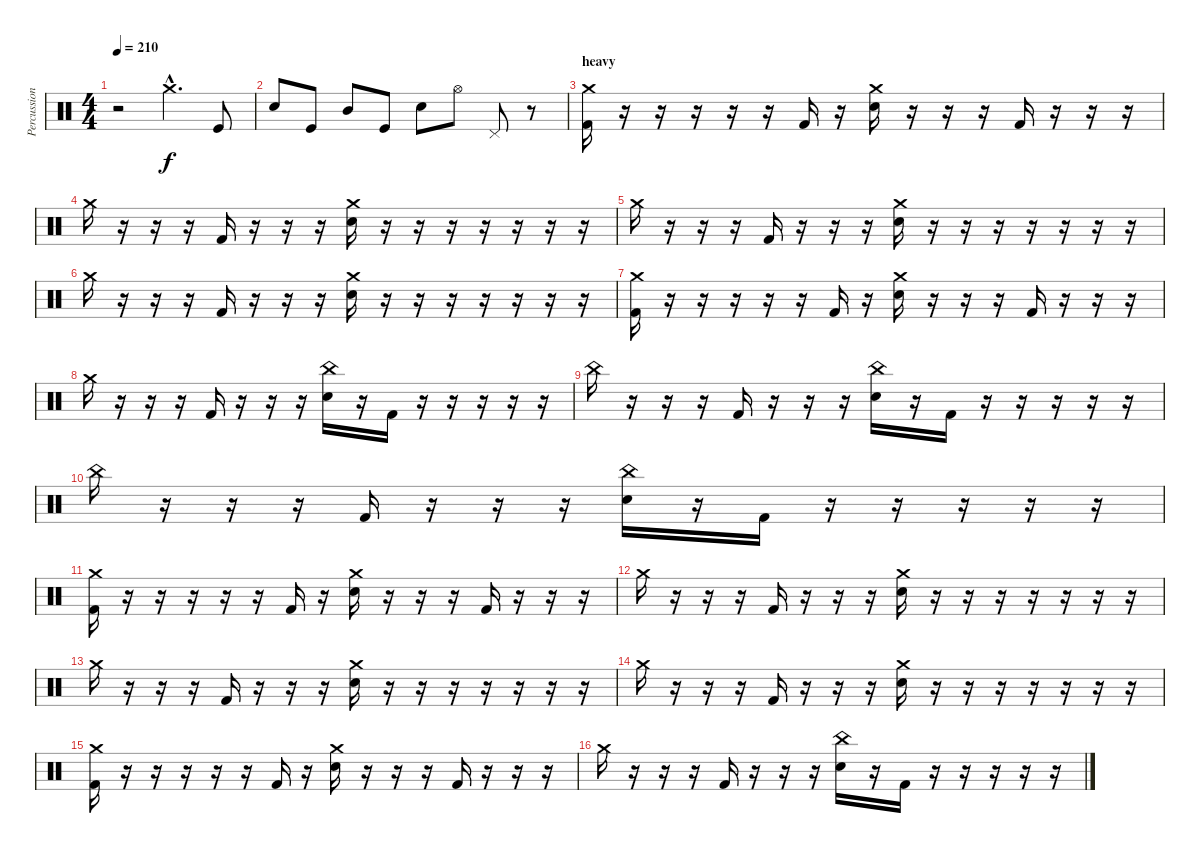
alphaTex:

\track ("Percussion" "Percussion") {instrument percussion}
\staff {score}
\articulation defaults
\ts (4 4)
\tempo 210
\clef neutral
\ks c
r.2{dy f volume 0} "Crash medium (hit)"{hac}.4{d volume 13} "Kick (hit)".8 |
"Electric Snare (hit)".8 "Kick (hit)".8 "Mid Tom (hit)".8 "Kick (hit)".8 "Electric Snare (hit)".8 "Hi-Hat (open)".8 "Pedal Hi-Hat (hit)".8 r.8 |
\section ("" "heavy")
("Kick (hit) 2" "Crash medium (hit)").16 r.16 r.16 r.16 r.16 r.16 "Kick (hit) 2".16 r.16 ("Electric Snare (hit)" "Crash medium (hit)").16 r.16 r.16 r.16 "Kick (hit) 2".16 r.16 r.16 r.16 |
"Crash medium (hit)".16 r.16 r.16 r.16 "Kick (hit) 2".16 r.16 r.16 r.16 ("Electric Snare (hit)" "Crash medium (hit)").16 r.16 r.16 r.16 r.16 r.16 r.16 r.16 |
"Crash medium (hit)".16 r.16 r.16 r.16 "Kick (hit) 2".16 r.16 r.16 r.16 ("Electric Snare (hit)" "Crash medium (hit)").16 r.16 r.16 r.16 r.16 r.16 r.16 r.16 |
"Crash medium (hit)".16 r.16 r.16 r.16 "Kick (hit) 2".16 r.16 r.16 r.16 ("Electric Snare (hit)" "Crash medium (hit)").16 r.16 r.16 r.16 r.16 r.16 r.16 r.16 |
("Kick (hit) 2" "Crash medium (hit)").16 r.16 r.16 r.16 r.16 r.16 "Kick (hit) 2".16 r.16 ("Electric Snare (hit)" "Crash medium (hit)").16 r.16 r.16 r.16 "Kick (hit) 2".16 r.16 r.16 r.16 |
"Crash medium (hit)".16 r.16 r.16 r.16 "Kick (hit) 2".16 r.16 r.16 r.16 ("Electric Snare (hit)" "China (hit)").16 r.16 "Kick (hit) 2".16 r.16 r.16 r.16 r.16 r.16 |
"China (hit)".16 r.16 r.16 r.16 "Kick (hit) 2".16 r.16 r.16 r.16 ("Electric Snare (hit)" "China (hit)").16 r.16 "Kick (hit) 2".16 r.16 r.16 r.16 r.16 r.16 |
"China (hit)".16 r.16 r.16 r.16 "Kick (hit) 2".16 r.16 r.16 r.16 ("Electric Snare (hit)" "China (hit)").16 r.16 "Kick (hit) 2".16 r.16 r.16 r.16 r.16 r.16 |
("Kick (hit) 2" "Crash medium (hit)").16 r.16 r.16 r.16 r.16 r.16 "Kick (hit) 2".16 r.16 ("Electric Snare (hit)" "Crash medium (hit)").16 r.16 r.16 r.16 "Kick (hit) 2".16 r.16 r.16 r.16 |
"Crash medium (hit)".16 r.16 r.16 r.16 "Kick (hit) 2".16 r.16 r.16 r.16 ("Electric Snare (hit)" "Crash medium (hit)").16 r.16 r.16 r.16 r.16 r.16 r.16 r.16 |
"Crash medium (hit)".16 r.16 r.16 r.16 "Kick (hit) 2".16 r.16 r.16 r.16 ("Electric Snare (hit)" "Crash medium (hit)").16 r.16 r.16 r.16 r.16 r.16 r.16 r.16 |
"Crash medium (hit)".16 r.16 r.16 r.16 "Kick (hit) 2".16 r.16 r.16 r.16 ("Electric Snare (hit)" "Crash medium (hit)").16 r.16 r.16 r.16 r.16 r.16 r.16 r.16 |
("Kick (hit) 2" "Crash medium (hit)").16 r.16 r.16 r.16 r.16 r.16 "Kick (hit) 2".16 r.16 ("Electric Snare (hit)" "Crash medium (hit)").16 r.16 r.16 r.16 "Kick (hit) 2".16 r.16 r.16 r.16 |
"Crash medium (hit)".16 r.16 r.16 r.16 "Kick (hit) 2".16 r.16 r.16 r.16 ("Electric Snare (hit)" "China (hit)").16 r.16 "Kick (hit) 2".16 r.16 r.16 r.16 r.16 r.16
